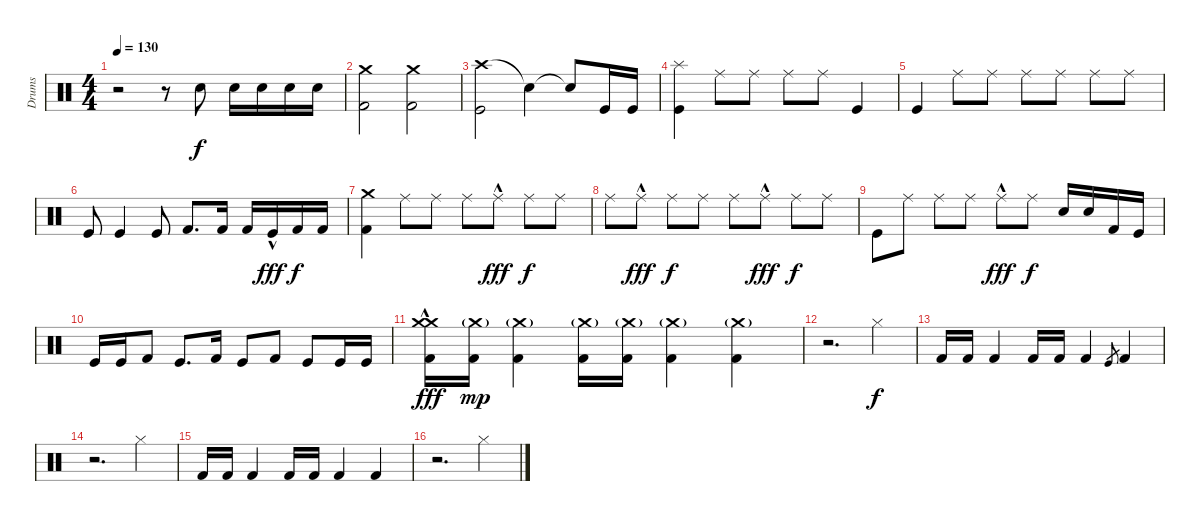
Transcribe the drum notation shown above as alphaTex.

\track ("Drums" "Drums") {instrument percussion}
\staff {score}
\articulation defaults
\ts (4 4)
\tempo 130
\clef neutral
\ks c
r.2{dy f} r.8 "Snare (hit) 2".8 "Snare (hit) 2".16 "Snare (hit) 2".16 "Snare (hit) 2".16 "Snare (hit) 2".16 |
("Crash medium (hit)" "Kick (hit) 2").2 ("Crash medium (hit)" "Kick (hit) 2").2 |
("Crash high (hit)" "Kick (hit)").2 "Snare (hit)"{t}.4 "Snare (hit)"{t}.8 "Kick (hit)".16 "Kick (hit)".16 |
("Splash (hit)" "Kick (hit)").4 "Ride (middle)".8 "Ride (middle)".8 "Ride (middle)".8 "Ride (middle)".8 "Kick (hit)".4 |
"Kick (hit)".4 "Ride (middle)".8 "Ride (middle)".8 "Ride (middle)".8 "Ride (middle)".8 "Ride (middle)".8 "Ride (middle)".8 |
"Kick (hit)".8 "Kick (hit)".4 "Kick (hit)".8 "Kick (hit) 2".8{d} "Kick (hit) 2".16 "Kick (hit) 2".16 "Kick (hit)"{hac}.16{dy fff} "Kick (hit) 2".16{dy f} "Kick (hit) 2".16 |
("Crash medium (hit)" "Kick (hit) 2").4 "Ride (middle)".8 "Ride (middle)".8 "Ride (middle)".8 "Ride (middle)"{hac}.8{dy fff} "Ride (middle)".8{dy f} "Ride (middle)".8 |
"Ride (middle)".8 "Ride (middle)"{hac}.8{dy fff} "Ride (middle)".8{dy f} "Ride (middle)".8 "Ride (middle)".8 "Ride (middle)"{hac}.8{dy fff} "Ride (middle)".8{dy f} "Ride (middle)".8 |
"Kick (hit)".8 "Ride (middle)".8 "Ride (middle)".8 "Ride (middle)".8 "Ride (middle)"{hac}.8{dy fff} "Ride (middle)".8{dy f} "Snare (hit) 2".16 "Snare (hit) 2".16 "Kick (hit) 2".16 "Kick (hit)".16 |
"Kick (hit)".16 "Kick (hit)".16 "Kick (hit) 2".8 "Kick (hit)".8{d} "Kick (hit) 2".16 "Kick (hit)".8 "Kick (hit) 2".8 "Kick (hit)".8 "Kick (hit)".16 "Kick (hit)".16 |
("Crash medium (hit)" "Crash medium (hit)" "Kick (hit) 2"{hac}).16{dy fff} ("Crash medium (hit)"{g} "Kick (hit) 2").16{dy mp} ("Crash medium (hit)"{g} "Kick (hit) 2").4 ("Crash medium (hit)"{g} "Kick (hit) 2").16 ("Crash medium (hit)"{g} "Kick (hit) 2").16 ("Crash medium (hit)"{g} "Kick (hit) 2").4 ("Crash medium (hit)"{g} "Kick (hit) 2").4 |
r.2{d} "Hi-Hat (closed)".4{dy f} |
"Kick (hit) 2".16 "Kick (hit) 2".16 "Kick (hit) 2".4 "Kick (hit) 2".16 "Kick (hit) 2".16 "Kick (hit) 2".4 "Kick (hit)".8{gr} "Kick (hit) 2".4 |
r.2{d} "Hi-Hat (closed)".4 |
"Kick (hit) 2".16 "Kick (hit) 2".16 "Kick (hit) 2".4 "Kick (hit) 2".16 "Kick (hit) 2".16 "Kick (hit) 2".4 "Kick (hit) 2".4 |
r.2{d} "Hi-Hat (closed)".4
